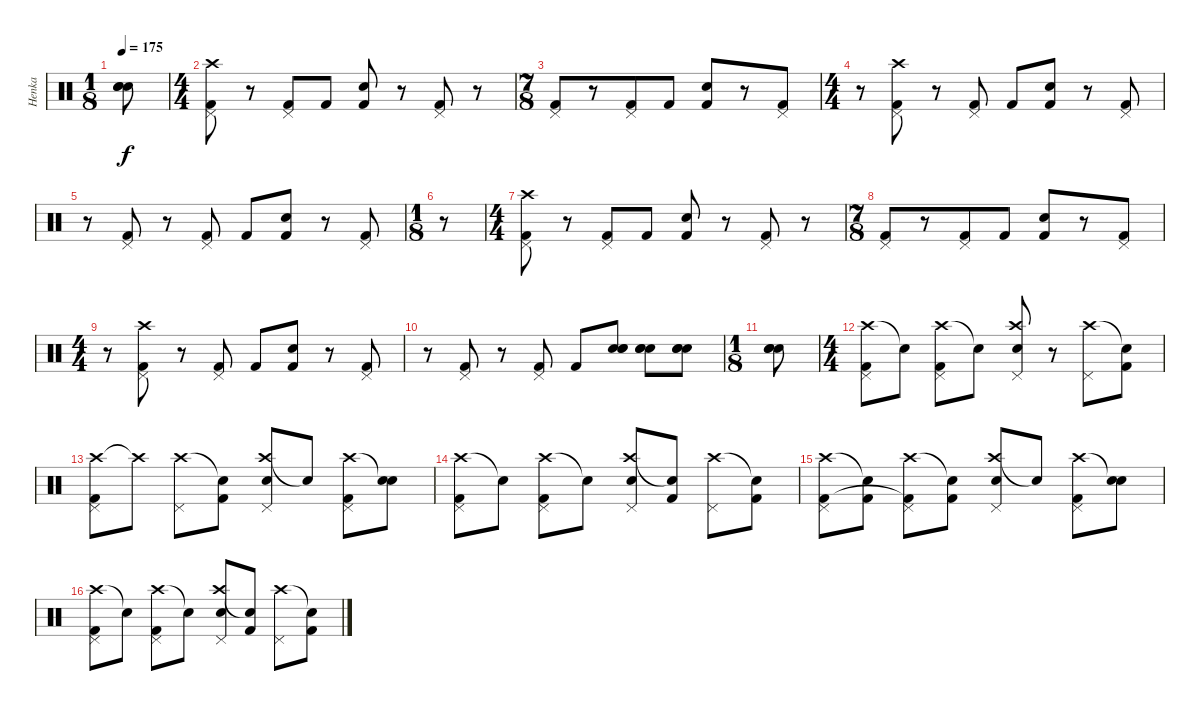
\track ("Henka" "Henka") {instrument percussion}
\staff {score}
\articulation defaults
\ts (1 8)
\tempo 175
\clef neutral
\ks c
("Snare (hit) 2" "Electric Snare (hit)" "Snare (hit) 2").8{dy f} |
\ts (4 4)
("Crash high (hit)" "Pedal Hi-Hat (hit)" "Kick (hit) 2").8 r.8 ("Pedal Hi-Hat (hit)" "Kick (hit) 2").8 "Kick (hit) 2".8 ("Snare (hit) 2" "Kick (hit) 2").8 r.8 ("Pedal Hi-Hat (hit)" "Kick (hit) 2").8 r.8 |
\ts (7 8)
("Pedal Hi-Hat (hit)" "Kick (hit) 2").8 r.8 ("Pedal Hi-Hat (hit)" "Kick (hit) 2").8 "Kick (hit) 2".8 ("Snare (hit) 2" "Kick (hit) 2").8 r.8 ("Pedal Hi-Hat (hit)" "Kick (hit) 2").8 |
\ts (4 4)
r.8 ("Crash high (hit)" "Pedal Hi-Hat (hit)" "Kick (hit) 2").8 r.8 ("Pedal Hi-Hat (hit)" "Kick (hit) 2").8 "Kick (hit) 2".8 ("Snare (hit) 2" "Kick (hit) 2").8 r.8 ("Pedal Hi-Hat (hit)" "Kick (hit) 2").8 |
r.8 ("Pedal Hi-Hat (hit)" "Kick (hit) 2").8 r.8 ("Pedal Hi-Hat (hit)" "Kick (hit) 2").8 "Kick (hit) 2".8 ("Snare (hit) 2" "Kick (hit) 2").8 r.8 ("Pedal Hi-Hat (hit)" "Kick (hit) 2").8 |
\ts (1 8)
r.8 |
\ts (4 4)
("Crash high (hit)" "Pedal Hi-Hat (hit)" "Kick (hit) 2").8 r.8 ("Pedal Hi-Hat (hit)" "Kick (hit) 2").8 "Kick (hit) 2".8 ("Snare (hit) 2" "Kick (hit) 2").8 r.8 ("Pedal Hi-Hat (hit)" "Kick (hit) 2").8 r.8 |
\ts (7 8)
("Pedal Hi-Hat (hit)" "Kick (hit) 2").8 r.8 ("Pedal Hi-Hat (hit)" "Kick (hit) 2").8 "Kick (hit) 2".8 ("Snare (hit) 2" "Kick (hit) 2").8 r.8 ("Pedal Hi-Hat (hit)" "Kick (hit) 2").8 |
\ts (4 4)
r.8 ("Crash high (hit)" "Pedal Hi-Hat (hit)" "Kick (hit) 2").8 r.8 ("Pedal Hi-Hat (hit)" "Kick (hit) 2").8 "Kick (hit) 2".8 ("Snare (hit) 2" "Kick (hit) 2").8 r.8 ("Pedal Hi-Hat (hit)" "Kick (hit) 2").8 |
r.8 ("Pedal Hi-Hat (hit)" "Kick (hit) 2").8 r.8 ("Pedal Hi-Hat (hit)" "Kick (hit) 2").8 "Kick (hit) 2".8 ("Snare (hit) 2" "Electric Snare (hit)" "Snare (hit) 2").8 ("Snare (hit) 2" "Electric Snare (hit)" "Snare (hit) 2").8 ("Snare (hit) 2" "Electric Snare (hit)" "Snare (hit) 2").8 |
\ts (1 8)
("Snare (hit) 2" "Electric Snare (hit)" "Snare (hit) 2").8 |
\ts (4 4)
("Crash high (hit)" "Pedal Hi-Hat (hit)" "Kick (hit) 2").8 "Snare (hit)"{t}.8 ("Crash high (hit)" "Pedal Hi-Hat (hit)" "Kick (hit) 2").8 "Snare (hit)"{t}.8 ("Crash high (hit)" "Pedal Hi-Hat (hit)" "Snare (hit) 2").8 r.8 ("Crash high (hit)" "Pedal Hi-Hat (hit)").8 ("Snare (hit)"{t} "Kick (hit) 2").8 |
("Crash high (hit)" "Pedal Hi-Hat (hit)" "Kick (hit) 2").8 "Crash high (hit)"{t}.8 ("Crash high (hit)" "Pedal Hi-Hat (hit)").8 ("Snare (hit)"{t} "Kick (hit) 2").8 ("Crash high (hit)" "Pedal Hi-Hat (hit)" "Snare (hit) 2").8 "Snare (hit)"{t}.8 ("Crash high (hit)" "Pedal Hi-Hat (hit)" "Kick (hit) 2").8 ("Snare (hit)"{t} "Snare (hit) 2").8 |
("Crash high (hit)" "Pedal Hi-Hat (hit)" "Kick (hit) 2").8 "Snare (hit)"{t}.8 ("Crash high (hit)" "Pedal Hi-Hat (hit)" "Kick (hit) 2").8 "Snare (hit)"{t}.8 ("Crash high (hit)" "Pedal Hi-Hat (hit)" "Snare (hit) 2").8 ("Snare (hit)"{t} "Kick (hit) 2").8 ("Crash high (hit)" "Pedal Hi-Hat (hit)").8 ("Snare (hit)"{t} "Kick (hit) 2").8 |
("Crash high (hit)" "Pedal Hi-Hat (hit)" "Kick (hit) 2").8 ("Snare (hit)"{t} "Kick (hit) 2").8 ("Crash high (hit)" "Pedal Hi-Hat (hit)" "Kick (hit) 2"{t}).8 ("Snare (hit)"{t} "Kick (hit) 2").8 ("Crash high (hit)" "Pedal Hi-Hat (hit)" "Snare (hit) 2").8 "Snare (hit)"{t}.8 ("Crash high (hit)" "Pedal Hi-Hat (hit)" "Kick (hit) 2").8 ("Snare (hit)"{t} "Snare (hit) 2").8 |
("Crash high (hit)" "Pedal Hi-Hat (hit)" "Kick (hit) 2").8 "Snare (hit)"{t}.8 ("Crash high (hit)" "Pedal Hi-Hat (hit)" "Kick (hit) 2").8 "Snare (hit)"{t}.8 ("Crash high (hit)" "Pedal Hi-Hat (hit)" "Snare (hit) 2").8 ("Snare (hit)"{t} "Kick (hit) 2").8 ("Crash high (hit)" "Pedal Hi-Hat (hit)").8 ("Snare (hit)"{t} "Kick (hit) 2").8
